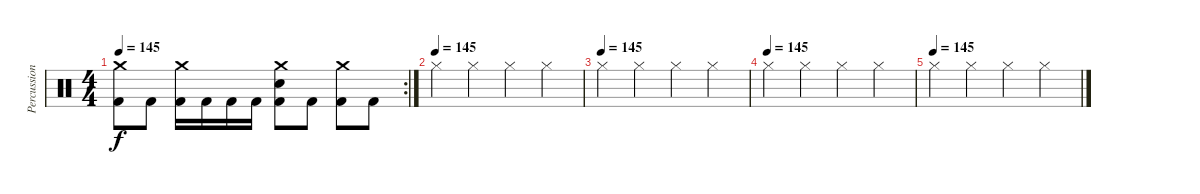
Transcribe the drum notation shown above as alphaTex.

\track ("Percussion" "Percussion") {instrument percussion}
\staff {score}
\articulation defaults
\rc 2
\ts (4 4)
\tempo 145
\clef neutral
\ks c
("Crash medium (hit)" "Kick (hit) 2").8{dy f} "Kick (hit) 2".8 ("Crash medium (hit)" "Kick (hit) 2").16 "Kick (hit) 2".16 "Kick (hit) 2".16 "Kick (hit) 2".16 ("Crash medium (hit)" "Electric Snare (hit)" "Kick (hit) 2").8 "Kick (hit) 2".8 ("Crash medium (hit)" "Kick (hit) 2").8 "Kick (hit) 2".8 |
\tempo (145)
"Hi-Hat (closed)".4{volume 0} "Hi-Hat (closed)".4 "Hi-Hat (closed)".4 "Hi-Hat (closed)".4 |
\tempo (145)
"Hi-Hat (closed)".4 "Hi-Hat (closed)".4 "Hi-Hat (closed)".4 "Hi-Hat (closed)".4 |
\tempo (145)
"Hi-Hat (closed)".4 "Hi-Hat (closed)".4 "Hi-Hat (closed)".4 "Hi-Hat (closed)".4 |
\tempo (145)
"Hi-Hat (closed)".4 "Hi-Hat (closed)".4 "Hi-Hat (closed)".4 "Hi-Hat (closed)".4
